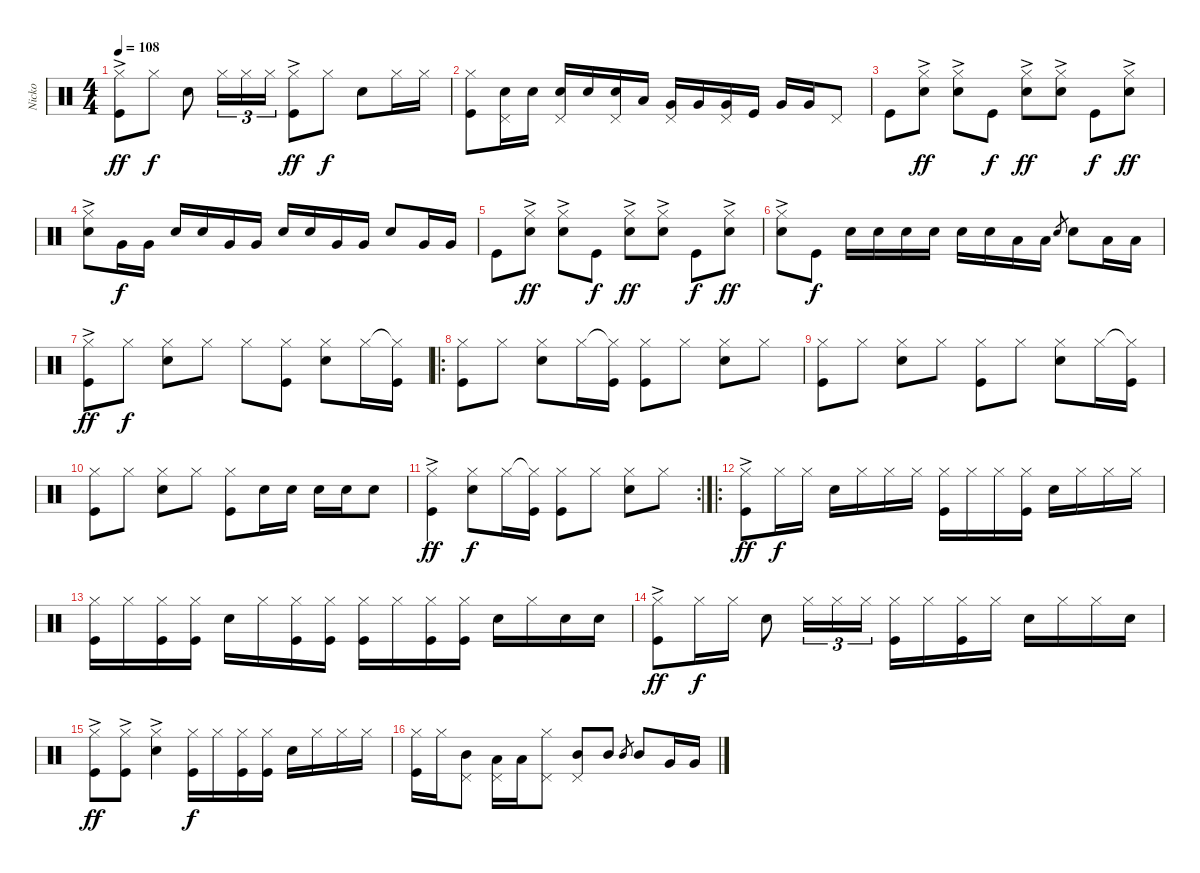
\track ("Nicko" "Nicko") {instrument percussion}
\staff {score}
\articulation defaults
\ts (4 4)
\tempo 108
\clef neutral
\ks c
("Hi-Hat (closed)"{ac} "Kick (hit)"{ac}).8{dy ff} "Hi-Hat (closed)".8{dy f} "Snare (hit) 2".8 "Hi-Hat (closed)".16{tu (3 2)} "Hi-Hat (closed)".16{tu (3 2)} "Hi-Hat (closed)".16{tu (3 2)} ("Hi-Hat (closed)" "Kick (hit)"{ac}).8{dy ff} "Hi-Hat (closed)".8{dy f} "Snare (hit) 2".8 "Hi-Hat (closed)".16 "Hi-Hat (closed)".16 |
("Hi-Hat (closed)" "Kick (hit)").8 ("Pedal Hi-Hat (hit)" "Snare (hit) 2").16 "Snare (hit) 2".16 ("Pedal Hi-Hat (hit)" "Snare (hit) 2").16 "Snare (hit) 2".16 ("Pedal Hi-Hat (hit)" "Snare (hit) 2").16 "Low Tom (hit)".16 ("Pedal Hi-Hat (hit)" "Very Low Tom (hit)").16 "Very Low Tom (hit)".16 ("Pedal Hi-Hat (hit)" "Very Low Tom (hit)").16 "Kick (hit)".16 "Very Low Tom (hit)".16 "Very Low Tom (hit)".16 "Pedal Hi-Hat (hit)".8 |
"Kick (hit)".8 ("Hi-Hat (closed)"{ac} "Snare (hit) 2"{ac}).8{dy ff} ("Hi-Hat (closed)"{ac} "Snare (hit) 2"{ac}).8 "Kick (hit)".8{dy f} ("Hi-Hat (closed)"{ac} "Snare (hit) 2"{ac}).8{dy ff} ("Hi-Hat (closed)"{ac} "Snare (hit) 2"{ac}).8 "Kick (hit)".8{dy f} ("Hi-Hat (closed)"{ac} "Snare (hit) 2").8{dy ff} |
("Hi-Hat (closed)"{ac} "Snare (hit) 2"{ac}).8 "Very Low Tom (hit)".16{dy f} "Very Low Tom (hit)".16 "Snare (hit) 2".16 "Snare (hit) 2".16 "Very Low Tom (hit)".16 "Very Low Tom (hit)".16 "Snare (hit) 2".16 "Snare (hit) 2".16 "Very Low Tom (hit)".16 "Very Low Tom (hit)".16 "Snare (hit) 2".8 "Very Low Tom (hit)".16 "Very Low Tom (hit)".16 |
"Kick (hit)".8 ("Hi-Hat (closed)"{ac} "Snare (hit) 2"{ac}).8{dy ff} ("Hi-Hat (closed)"{ac} "Snare (hit) 2"{ac}).8 "Kick (hit)".8{dy f} ("Hi-Hat (closed)"{ac} "Snare (hit) 2"{ac}).8{dy ff} ("Hi-Hat (closed)"{ac} "Snare (hit) 2"{ac}).8 "Kick (hit)".8{dy f} ("Hi-Hat (closed)"{ac} "Snare (hit) 2").8{dy ff} |
("Hi-Hat (closed)"{ac} "Snare (hit) 2"{ac}).8 "Kick (hit)".8{dy f} "Snare (hit) 2".16 "Snare (hit) 2".16 "Snare (hit) 2".16 "Snare (hit) 2".16 "Snare (hit) 2".16 "Snare (hit) 2".16 "Low Tom (hit)".16 "Low Tom (hit)".16 "Snare (hit) 2".8{gr} "Snare (hit) 2".8 "Low Tom (hit)".16 "Low Tom (hit)".16 |
("Hi-Hat (closed)"{ac} "Kick (hit)"{ac}).8{dy ff} "Hi-Hat (closed)".8{dy f} ("Hi-Hat (closed)" "Snare (hit) 2").8 "Hi-Hat (closed)".8 "Hi-Hat (closed)".8 ("Hi-Hat (closed)" "Kick (hit)").8 ("Hi-Hat (closed)" "Snare (hit) 2").8 "Hi-Hat (closed)".16 ("Hi-Hat (closed)"{t} "Kick (hit)").16 |
\ro
("Hi-Hat (closed)" "Kick (hit)").8 "Hi-Hat (closed)".8 ("Hi-Hat (closed)" "Snare (hit) 2").8 "Hi-Hat (closed)".16 ("Hi-Hat (closed)"{t} "Kick (hit)").16 ("Hi-Hat (closed)" "Kick (hit)").8 "Hi-Hat (closed)".8 ("Hi-Hat (closed)" "Snare (hit) 2").8 "Hi-Hat (closed)".8 |
("Hi-Hat (closed)" "Kick (hit)").8 "Hi-Hat (closed)".8 ("Hi-Hat (closed)" "Snare (hit) 2").8 "Hi-Hat (closed)".8 ("Hi-Hat (closed)" "Kick (hit)").8 "Hi-Hat (closed)".8 ("Hi-Hat (closed)" "Snare (hit) 2").8 "Hi-Hat (closed)".16 ("Hi-Hat (closed)"{t} "Kick (hit)").16 |
("Hi-Hat (closed)" "Kick (hit)").8 "Hi-Hat (closed)".8 ("Hi-Hat (closed)" "Snare (hit) 2").8 "Hi-Hat (closed)".8 ("Hi-Hat (closed)" "Kick (hit)").8 "Snare (hit) 2".16 "Snare (hit) 2".16 "Snare (hit) 2".16 "Snare (hit) 2".16 "Snare (hit) 2".8 |
\rc 2
("Hi-Hat (closed)"{ac} "Kick (hit)"{ac}).4{dy ff} ("Hi-Hat (closed)" "Snare (hit) 2").8{dy f} "Hi-Hat (closed)".16 ("Hi-Hat (closed)"{t} "Kick (hit)").16 ("Hi-Hat (closed)" "Kick (hit)").8 "Hi-Hat (closed)".8 ("Hi-Hat (closed)" "Snare (hit) 2").8 "Hi-Hat (closed)".8 |
\ro
("Hi-Hat (closed)"{ac} "Kick (hit)").8{dy ff} "Hi-Hat (closed)".16{dy f} "Hi-Hat (closed)".16 "Snare (hit) 2".16 "Hi-Hat (closed)".16 "Hi-Hat (closed)".16 "Hi-Hat (closed)".16 ("Hi-Hat (closed)" "Kick (hit)").16 "Hi-Hat (closed)".16 "Hi-Hat (closed)".16 ("Hi-Hat (closed)" "Kick (hit)").16 "Snare (hit) 2".16 "Hi-Hat (closed)".16 "Hi-Hat (closed)".16 "Hi-Hat (closed)".16 |
("Hi-Hat (closed)" "Kick (hit)").16 "Hi-Hat (closed)".16 ("Hi-Hat (closed)" "Kick (hit)").16 ("Hi-Hat (closed)" "Kick (hit)").16 "Snare (hit) 2".16 "Hi-Hat (closed)".16 ("Hi-Hat (closed)" "Kick (hit)").16 ("Hi-Hat (closed)" "Kick (hit)").16 ("Hi-Hat (closed)" "Kick (hit)").16 "Hi-Hat (closed)".16 ("Hi-Hat (closed)" "Kick (hit)").16 ("Hi-Hat (closed)" "Kick (hit)").16 "Snare (hit) 2".16 "Hi-Hat (closed)".16 "Snare (hit) 2".16 "Snare (hit) 2".16 |
("Hi-Hat (closed)"{ac} "Kick (hit)").8{dy ff} "Hi-Hat (closed)".16{dy f} "Hi-Hat (closed)".16 "Snare (hit) 2".8 "Hi-Hat (closed)".16{tu (3 2)} "Hi-Hat (closed)".16{tu (3 2)} "Hi-Hat (closed)".16{tu (3 2)} ("Hi-Hat (closed)" "Kick (hit)").16 "Hi-Hat (closed)".16 ("Hi-Hat (closed)" "Kick (hit)").16 "Hi-Hat (closed)".16 "Snare (hit) 2".16 "Hi-Hat (closed)".16 "Hi-Hat (closed)".16 "Snare (hit) 2".16 |
("Hi-Hat (closed)"{ac} "Kick (hit)").8{dy ff} ("Hi-Hat (closed)"{ac} "Kick (hit)").8 ("Hi-Hat (closed)" "Snare (hit) 2"{ac}).4 ("Hi-Hat (closed)" "Kick (hit)").16{dy f} "Hi-Hat (closed)".16 ("Hi-Hat (closed)" "Kick (hit)").16 ("Hi-Hat (closed)" "Kick (hit)").16 "Snare (hit) 2".16 "Hi-Hat (closed)".16 "Hi-Hat (closed)".16 "Hi-Hat (closed)".16 |
("Hi-Hat (closed)" "Kick (hit)").16 "Hi-Hat (closed)".16 ("Mid Tom (hit)" "Pedal Hi-Hat (hit)").8 ("Low Tom (hit)" "Pedal Hi-Hat (hit)").16 "Low Tom (hit)".16 ("Hi-Hat (closed)" "Pedal Hi-Hat (hit)").8 ("Mid Tom (hit)" "Pedal Hi-Hat (hit)").8 "Mid Tom (hit)".8 "Mid Tom (hit)".8{gr} "Mid Tom (hit)".8 "Very Low Tom (hit)".16 "Very Low Tom (hit)".16
